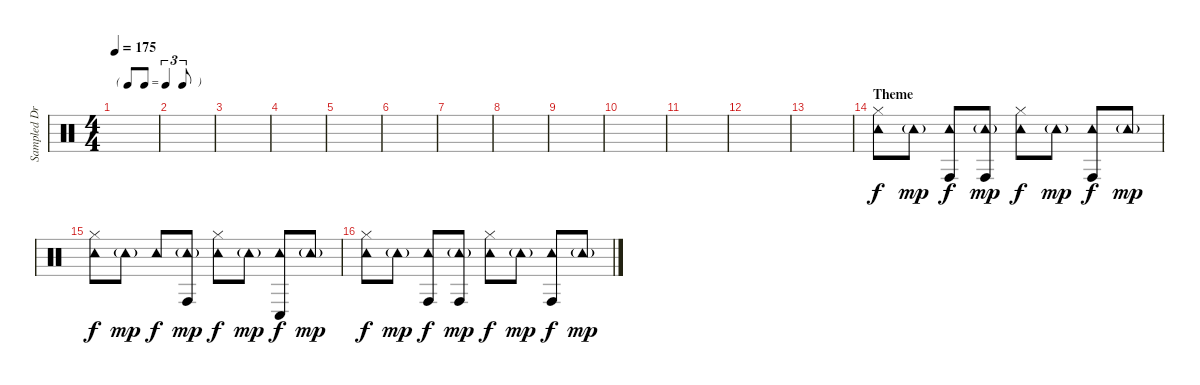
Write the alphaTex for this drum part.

\track ("Sampled Drums" "Sampled Dr") {instrument percussion}
\staff {score}
\articulation defaults
\ts (4 4)
\tf triplet8th
\tempo 175
\clef neutral
\ks c
|
|
|
|
|
|
|
|
|
|
|
|
|
\section ("" "Theme")
("Tambourine (hit)" "Hi-Hat (closed)").8 "Tambourine (hit)"{g}.8{dy mp} ("Tambourine (hit)" "Conga high (hit)").8{dy f} ("Tambourine (hit)"{g} "Conga high (hit)").8{dy mp} ("Tambourine (hit)" "Hi-Hat (closed)").8{dy f} "Tambourine (hit)"{g}.8{dy mp} ("Tambourine (hit)" "Conga high (hit)").8{dy f} "Tambourine (hit)"{g}.8{dy mp} |
("Tambourine (hit)" "Hi-Hat (closed)").8{dy f} "Tambourine (hit)"{g}.8{dy mp} "Tambourine (hit)".8{dy f} ("Tambourine (hit)"{g} "Conga high (hit)").8{dy mp} ("Tambourine (hit)" "Hi-Hat (closed)").8{dy f} "Tambourine (hit)"{g}.8{dy mp} ("Tambourine (hit)" "Conga low (hit)").8{dy f} "Tambourine (hit)"{g}.8{dy mp} |
("Tambourine (hit)" "Hi-Hat (closed)").8{dy f} "Tambourine (hit)"{g}.8{dy mp} ("Tambourine (hit)" "Conga high (hit)").8{dy f} ("Tambourine (hit)"{g} "Conga high (hit)").8{dy mp} ("Tambourine (hit)" "Hi-Hat (closed)").8{dy f} "Tambourine (hit)"{g}.8{dy mp} ("Tambourine (hit)" "Conga high (hit)").8{dy f} "Tambourine (hit)"{g}.8{dy mp}
